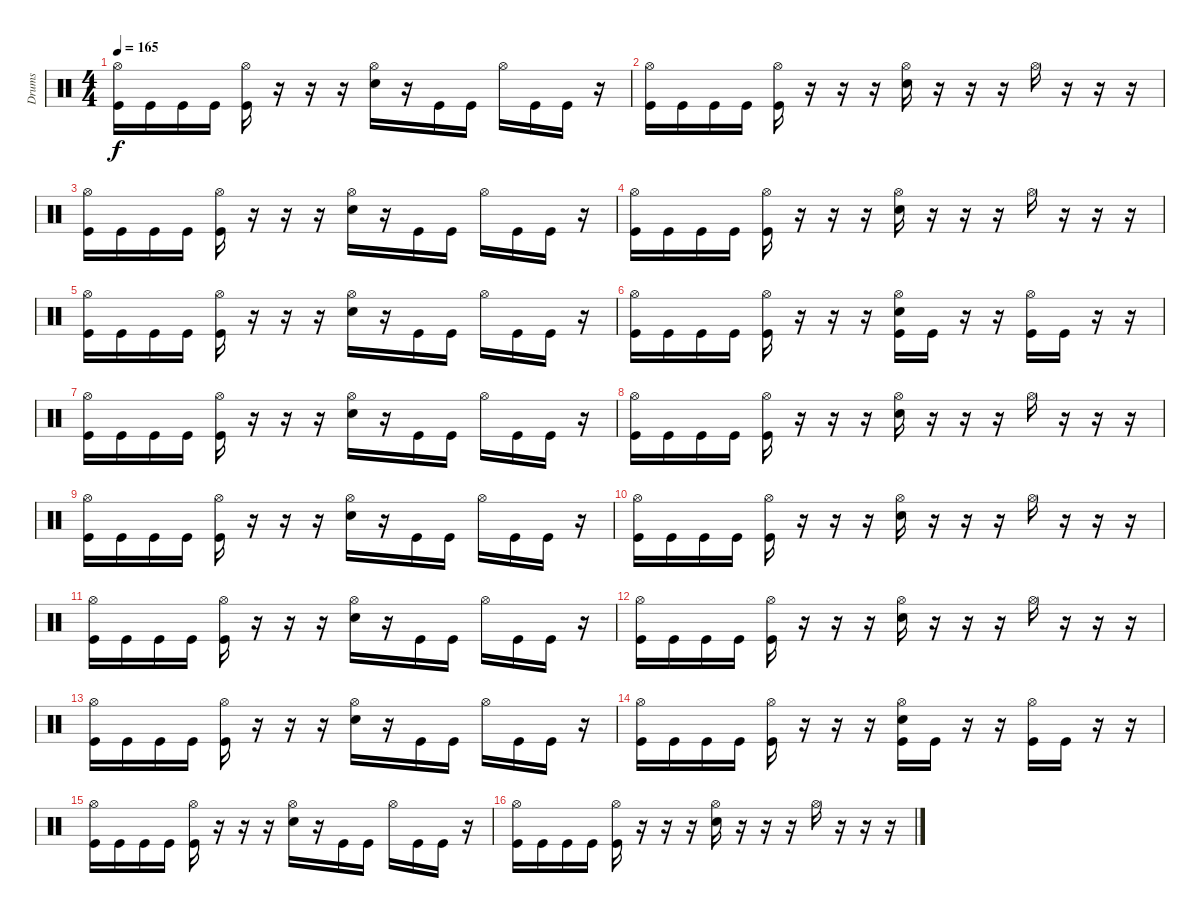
\track ("Drums" "Drums") {instrument percussion}
\staff {score}
\articulation defaults
\ts (4 4)
\tempo 165
\clef neutral
\ks c
("Hi-Hat (open)" "Kick (hit)").16{dy f} "Kick (hit)".16 "Kick (hit)".16 "Kick (hit)".16 ("Hi-Hat (open)" "Kick (hit)").16 r.16 r.16 r.16 ("Hi-Hat (open)" "Electric Snare (hit)").16 r.16 "Kick (hit)".16 "Kick (hit)".16 "Hi-Hat (open)".16 "Kick (hit)".16 "Kick (hit)".16 r.16 |
("Hi-Hat (open)" "Kick (hit)").16 "Kick (hit)".16 "Kick (hit)".16 "Kick (hit)".16 ("Hi-Hat (open)" "Kick (hit)").16 r.16 r.16 r.16 ("Hi-Hat (open)" "Electric Snare (hit)").16 r.16 r.16 r.16 "Hi-Hat (open)".16 r.16 r.16 r.16 |
("Hi-Hat (open)" "Kick (hit)").16 "Kick (hit)".16 "Kick (hit)".16 "Kick (hit)".16 ("Hi-Hat (open)" "Kick (hit)").16 r.16 r.16 r.16 ("Hi-Hat (open)" "Electric Snare (hit)").16 r.16 "Kick (hit)".16 "Kick (hit)".16 "Hi-Hat (open)".16 "Kick (hit)".16 "Kick (hit)".16 r.16 |
("Hi-Hat (open)" "Kick (hit)").16 "Kick (hit)".16 "Kick (hit)".16 "Kick (hit)".16 ("Hi-Hat (open)" "Kick (hit)").16 r.16 r.16 r.16 ("Hi-Hat (open)" "Electric Snare (hit)").16 r.16 r.16 r.16 "Hi-Hat (open)".16 r.16 r.16 r.16 |
("Hi-Hat (open)" "Kick (hit)").16 "Kick (hit)".16 "Kick (hit)".16 "Kick (hit)".16 ("Hi-Hat (open)" "Kick (hit)").16 r.16 r.16 r.16 ("Hi-Hat (open)" "Electric Snare (hit)").16 r.16 "Kick (hit)".16 "Kick (hit)".16 "Hi-Hat (open)".16 "Kick (hit)".16 "Kick (hit)".16 r.16 |
("Hi-Hat (open)" "Kick (hit)").16 "Kick (hit)".16 "Kick (hit)".16 "Kick (hit)".16 ("Hi-Hat (open)" "Kick (hit)").16 r.16 r.16 r.16 ("Hi-Hat (open)" "Electric Snare (hit)" "Kick (hit)").16 "Kick (hit)".16 r.16 r.16 ("Hi-Hat (open)" "Kick (hit)").16 "Kick (hit)".16 r.16 r.16 |
("Hi-Hat (open)" "Kick (hit)").16 "Kick (hit)".16 "Kick (hit)".16 "Kick (hit)".16 ("Hi-Hat (open)" "Kick (hit)").16 r.16 r.16 r.16 ("Hi-Hat (open)" "Electric Snare (hit)").16 r.16 "Kick (hit)".16 "Kick (hit)".16 "Hi-Hat (open)".16 "Kick (hit)".16 "Kick (hit)".16 r.16 |
("Hi-Hat (open)" "Kick (hit)").16 "Kick (hit)".16 "Kick (hit)".16 "Kick (hit)".16 ("Hi-Hat (open)" "Kick (hit)").16 r.16 r.16 r.16 ("Hi-Hat (open)" "Electric Snare (hit)").16 r.16 r.16 r.16 "Hi-Hat (open)".16 r.16 r.16 r.16 |
("Hi-Hat (open)" "Kick (hit)").16 "Kick (hit)".16 "Kick (hit)".16 "Kick (hit)".16 ("Hi-Hat (open)" "Kick (hit)").16 r.16 r.16 r.16 ("Hi-Hat (open)" "Electric Snare (hit)").16 r.16 "Kick (hit)".16 "Kick (hit)".16 "Hi-Hat (open)".16 "Kick (hit)".16 "Kick (hit)".16 r.16 |
("Hi-Hat (open)" "Kick (hit)").16 "Kick (hit)".16 "Kick (hit)".16 "Kick (hit)".16 ("Hi-Hat (open)" "Kick (hit)").16 r.16 r.16 r.16 ("Hi-Hat (open)" "Electric Snare (hit)").16 r.16 r.16 r.16 "Hi-Hat (open)".16 r.16 r.16 r.16 |
("Hi-Hat (open)" "Kick (hit)").16 "Kick (hit)".16 "Kick (hit)".16 "Kick (hit)".16 ("Hi-Hat (open)" "Kick (hit)").16 r.16 r.16 r.16 ("Hi-Hat (open)" "Electric Snare (hit)").16 r.16 "Kick (hit)".16 "Kick (hit)".16 "Hi-Hat (open)".16 "Kick (hit)".16 "Kick (hit)".16 r.16 |
("Hi-Hat (open)" "Kick (hit)").16 "Kick (hit)".16 "Kick (hit)".16 "Kick (hit)".16 ("Hi-Hat (open)" "Kick (hit)").16 r.16 r.16 r.16 ("Hi-Hat (open)" "Electric Snare (hit)").16 r.16 r.16 r.16 "Hi-Hat (open)".16 r.16 r.16 r.16 |
("Hi-Hat (open)" "Kick (hit)").16 "Kick (hit)".16 "Kick (hit)".16 "Kick (hit)".16 ("Hi-Hat (open)" "Kick (hit)").16 r.16 r.16 r.16 ("Hi-Hat (open)" "Electric Snare (hit)").16 r.16 "Kick (hit)".16 "Kick (hit)".16 "Hi-Hat (open)".16 "Kick (hit)".16 "Kick (hit)".16 r.16 |
("Hi-Hat (open)" "Kick (hit)").16 "Kick (hit)".16 "Kick (hit)".16 "Kick (hit)".16 ("Hi-Hat (open)" "Kick (hit)").16 r.16 r.16 r.16 ("Hi-Hat (open)" "Electric Snare (hit)" "Kick (hit)").16 "Kick (hit)".16 r.16 r.16 ("Hi-Hat (open)" "Kick (hit)").16 "Kick (hit)".16 r.16 r.16 |
("Hi-Hat (open)" "Kick (hit)").16 "Kick (hit)".16 "Kick (hit)".16 "Kick (hit)".16 ("Hi-Hat (open)" "Kick (hit)").16 r.16 r.16 r.16 ("Hi-Hat (open)" "Electric Snare (hit)").16 r.16 "Kick (hit)".16 "Kick (hit)".16 "Hi-Hat (open)".16 "Kick (hit)".16 "Kick (hit)".16 r.16 |
("Hi-Hat (open)" "Kick (hit)").16 "Kick (hit)".16 "Kick (hit)".16 "Kick (hit)".16 ("Hi-Hat (open)" "Kick (hit)").16 r.16 r.16 r.16 ("Hi-Hat (open)" "Electric Snare (hit)").16 r.16 r.16 r.16 "Hi-Hat (open)".16 r.16 r.16 r.16
